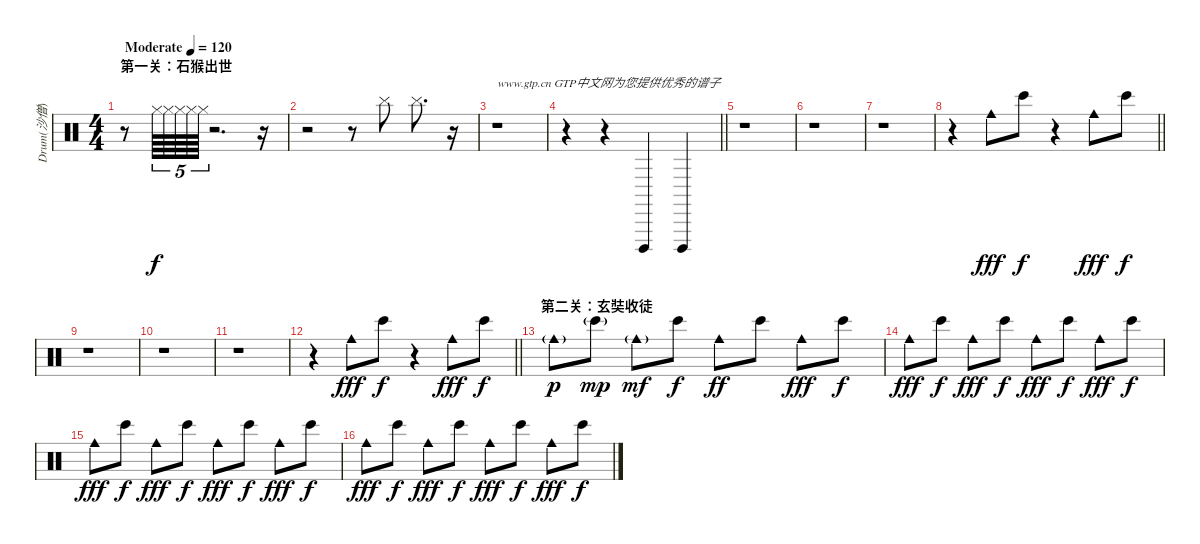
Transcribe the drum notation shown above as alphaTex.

\track ("Drum(沙僧)" "Drum(沙僧)") {instrument percussion}
\staff {score}
\articulation defaults
\ts (4 4)
\section ("" "第一关：石猴出世")
\tempo (120 "Moderate")
\clef neutral
\ks c
r.8{dy f} "Hi-Hat (closed)".64{tu (5 4)} "Hi-Hat (closed)".64{tu (5 4)} "Hi-Hat (closed)".64{tu (5 4)} "Hi-Hat (closed)".64{tu (5 4)} "Hi-Hat (closed)".64{tu (5 4)} r.2{d} r.16 |
r.2 r.8 "Cymbal (hit)".8 "Cymbal (hit)".8{d} r.16 |
r.1{txt "www.gtp.cn GTP中文网为您提供优秀的谱子"} |
\barLineRight lightlight
r.4 r.4 "Cuica (open)".4 "Cuica (open)".4 |
r.1 |
r.1 |
r.1 |
\barLineRight lightlight
r.4 "Cowbell medium (hit)".8{dy fff} "Bongo High (hit)".8{dy f} r.4 "Cowbell medium (hit)".8{dy fff} "Bongo High (hit)".8{dy f} |
r.1 |
r.1 |
r.1 |
\barLineRight lightlight
r.4 "Cowbell medium (hit)".8{dy fff} "Bongo High (hit)".8{dy f} r.4 "Cowbell medium (hit)".8{dy fff} "Bongo High (hit)".8{dy f} |
\section ("" "第二关：玄奘收徒")
"Cowbell medium (hit)"{g}.8{dy p} "Bongo High (hit)"{g}.8{dy mp} "Cowbell medium (hit)"{g}.8{dy mf} "Bongo High (hit)".8{dy f} "Cowbell medium (hit)".8{dy ff} "Bongo High (hit)".8 "Cowbell medium (hit)".8{dy fff} "Bongo High (hit)".8{dy f} |
"Cowbell medium (hit)".8{dy fff} "Bongo High (hit)".8{dy f} "Cowbell medium (hit)".8{dy fff} "Bongo High (hit)".8{dy f} "Cowbell medium (hit)".8{dy fff} "Bongo High (hit)".8{dy f} "Cowbell medium (hit)".8{dy fff} "Bongo High (hit)".8{dy f} |
"Cowbell medium (hit)".8{dy fff} "Bongo High (hit)".8{dy f} "Cowbell medium (hit)".8{dy fff} "Bongo High (hit)".8{dy f} "Cowbell medium (hit)".8{dy fff} "Bongo High (hit)".8{dy f} "Cowbell medium (hit)".8{dy fff} "Bongo High (hit)".8{dy f} |
"Cowbell medium (hit)".8{dy fff} "Bongo High (hit)".8{dy f} "Cowbell medium (hit)".8{dy fff} "Bongo High (hit)".8{dy f} "Cowbell medium (hit)".8{dy fff} "Bongo High (hit)".8{dy f} "Cowbell medium (hit)".8{dy fff} "Bongo High (hit)".8{dy f}
